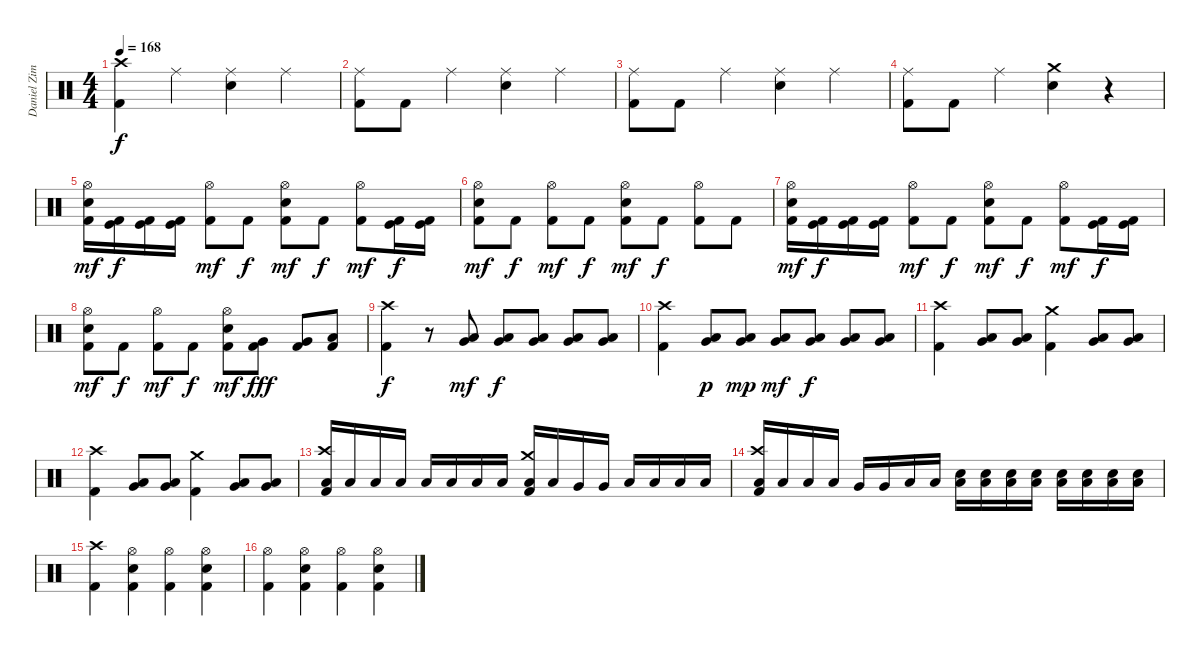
\track ("Daniel Zimmermann - Drums" "Daniel Zim") {instrument percussion}
\staff {score}
\articulation defaults
\ts (4 4)
\tempo 168
\clef neutral
\ks c
("Kick (hit) 2" "Crash high (hit)").4{dy f} "Ride (middle)".4 ("Electric Snare (hit)" "Ride (middle)").4 "Ride (middle)".4 |
("Kick (hit) 2" "Ride (middle)").8 "Kick (hit) 2".8 "Ride (middle)".4 ("Electric Snare (hit)" "Ride (middle)").4 "Ride (middle)".4 |
("Kick (hit) 2" "Ride (middle)").8 "Kick (hit) 2".8 "Ride (middle)".4 ("Electric Snare (hit)" "Ride (middle)").4 "Ride (middle)".4 |
("Kick (hit) 2" "Ride (middle)").8 "Kick (hit) 2".8 "Ride (middle)".4 ("Electric Snare (hit)" "Crash medium (hit)").4 r.4 |
("Kick (hit) 2" "Electric Snare (hit)" "Hi-Hat (open)").16{dy mf} ("Kick (hit) 2" "Kick (hit)").16{dy f} ("Kick (hit) 2" "Kick (hit)").16 ("Kick (hit) 2" "Kick (hit)").16 ("Kick (hit) 2" "Hi-Hat (open)").8{dy mf} "Kick (hit) 2".8{dy f} ("Kick (hit) 2" "Electric Snare (hit)" "Hi-Hat (open)").8{dy mf} "Kick (hit) 2".8{dy f} ("Kick (hit) 2" "Hi-Hat (open)").8{dy mf} ("Kick (hit) 2" "Kick (hit)").16{dy f} ("Kick (hit) 2" "Kick (hit)").16 |
("Kick (hit) 2" "Electric Snare (hit)" "Hi-Hat (open)").8{dy mf} "Kick (hit) 2".8{dy f} ("Kick (hit) 2" "Hi-Hat (open)").8{dy mf} "Kick (hit) 2".8{dy f} ("Kick (hit) 2" "Electric Snare (hit)" "Hi-Hat (open)").8{dy mf} "Kick (hit) 2".8{dy f} ("Kick (hit) 2" "Hi-Hat (open)").8 "Kick (hit) 2".8 |
("Kick (hit) 2" "Electric Snare (hit)" "Hi-Hat (open)").16{dy mf} ("Kick (hit) 2" "Kick (hit)").16{dy f} ("Kick (hit) 2" "Kick (hit)").16 ("Kick (hit) 2" "Kick (hit)").16 ("Kick (hit) 2" "Hi-Hat (open)").8{dy mf} "Kick (hit) 2".8{dy f} ("Kick (hit) 2" "Electric Snare (hit)" "Hi-Hat (open)").8{dy mf} "Kick (hit) 2".8{dy f} ("Kick (hit) 2" "Hi-Hat (open)").8{dy mf} ("Kick (hit) 2" "Kick (hit)").16{dy f} ("Kick (hit) 2" "Kick (hit)").16 |
("Kick (hit) 2" "Electric Snare (hit)" "Hi-Hat (open)").8{dy mf} "Kick (hit) 2".8{dy f} ("Kick (hit) 2" "Hi-Hat (open)").8{dy mf} "Kick (hit) 2".8{dy f} ("Kick (hit) 2" "Electric Snare (hit)" "Hi-Hat (open)").8{dy mf} ("Kick (hit) 2" "Very Low Tom (hit)").8{dy fff} ("Kick (hit) 2" "Very Low Tom (hit)").8 ("Kick (hit) 2" "Low Floor Tom (hit)").8 |
("Kick (hit) 2" "Crash high (hit)").4{dy f} r.8 ("Very Low Tom (hit)" "Low Floor Tom (hit)").8{dy mf} ("Very Low Tom (hit)" "Low Floor Tom (hit)").8{dy f} ("Very Low Tom (hit)" "Low Floor Tom (hit)").8 ("Very Low Tom (hit)" "Low Floor Tom (hit)").8 ("Very Low Tom (hit)" "Low Floor Tom (hit)").8 |
("Kick (hit) 2" "Crash high (hit)").4 ("Very Low Tom (hit)" "Low Floor Tom (hit)").8{dy p} ("Very Low Tom (hit)" "Low Floor Tom (hit)").8{dy mp} ("Very Low Tom (hit)" "Low Floor Tom (hit)").8{dy mf} ("Very Low Tom (hit)" "Low Floor Tom (hit)").8{dy f} ("Very Low Tom (hit)" "Low Floor Tom (hit)").8 ("Very Low Tom (hit)" "Low Floor Tom (hit)").8 |
("Kick (hit) 2" "Crash high (hit)").4 ("Very Low Tom (hit)" "Low Floor Tom (hit)").8 ("Very Low Tom (hit)" "Low Floor Tom (hit)").8 ("Kick (hit) 2" "Crash medium (hit)").4 ("Very Low Tom (hit)" "Low Floor Tom (hit)").8 ("Very Low Tom (hit)" "Low Floor Tom (hit)").8 |
("Kick (hit) 2" "Crash high (hit)").4 ("Very Low Tom (hit)" "Low Floor Tom (hit)").8 ("Very Low Tom (hit)" "Low Floor Tom (hit)").8 ("Kick (hit) 2" "Crash medium (hit)").4 ("Very Low Tom (hit)" "Low Floor Tom (hit)").8 ("Very Low Tom (hit)" "Low Floor Tom (hit)").8 |
("Kick (hit) 2" "Low Tom (hit)" "Crash high (hit)").16 "Low Tom (hit)".16 "Low Tom (hit)".16 "Low Tom (hit)".16 "Low Tom (hit)".16 "Low Tom (hit)".16 "Low Tom (hit)".16 "Low Tom (hit)".16 ("Kick (hit) 2" "Low Tom (hit)" "Crash medium (hit)").16 "Low Tom (hit)".16 "Very Low Tom (hit)".16 "Very Low Tom (hit)".16 "Low Floor Tom (hit)".16 "Low Floor Tom (hit)".16 "Low Floor Tom (hit)".16 "Low Floor Tom (hit)".16 |
("Kick (hit) 2" "Low Floor Tom (hit)" "Crash high (hit)").16 "Low Floor Tom (hit)".16 "Low Floor Tom (hit)".16 "Low Floor Tom (hit)".16 "Very Low Tom (hit)".16 "Very Low Tom (hit)".16 "Low Tom (hit)".16 "Low Tom (hit)".16 ("Low Tom (hit)" "Electric Snare (hit)").16 ("Low Tom (hit)" "Electric Snare (hit)").16 ("Low Tom (hit)" "Electric Snare (hit)").16 ("Low Tom (hit)" "Electric Snare (hit)").16 ("Low Tom (hit)" "Electric Snare (hit)").16 ("Low Tom (hit)" "Electric Snare (hit)").16 ("Low Tom (hit)" "Electric Snare (hit)").16 ("Low Tom (hit)" "Electric Snare (hit)").16 |
("Kick (hit) 2" "Crash high (hit)").4 ("Kick (hit) 2" "Electric Snare (hit)" "Hi-Hat (open)").4 ("Kick (hit) 2" "Hi-Hat (open)").4 ("Kick (hit) 2" "Electric Snare (hit)" "Hi-Hat (open)").4 |
("Kick (hit) 2" "Hi-Hat (open)").4 ("Kick (hit) 2" "Electric Snare (hit)" "Hi-Hat (open)").4 ("Kick (hit) 2" "Hi-Hat (open)").4 ("Kick (hit) 2" "Electric Snare (hit)" "Hi-Hat (open)").4
